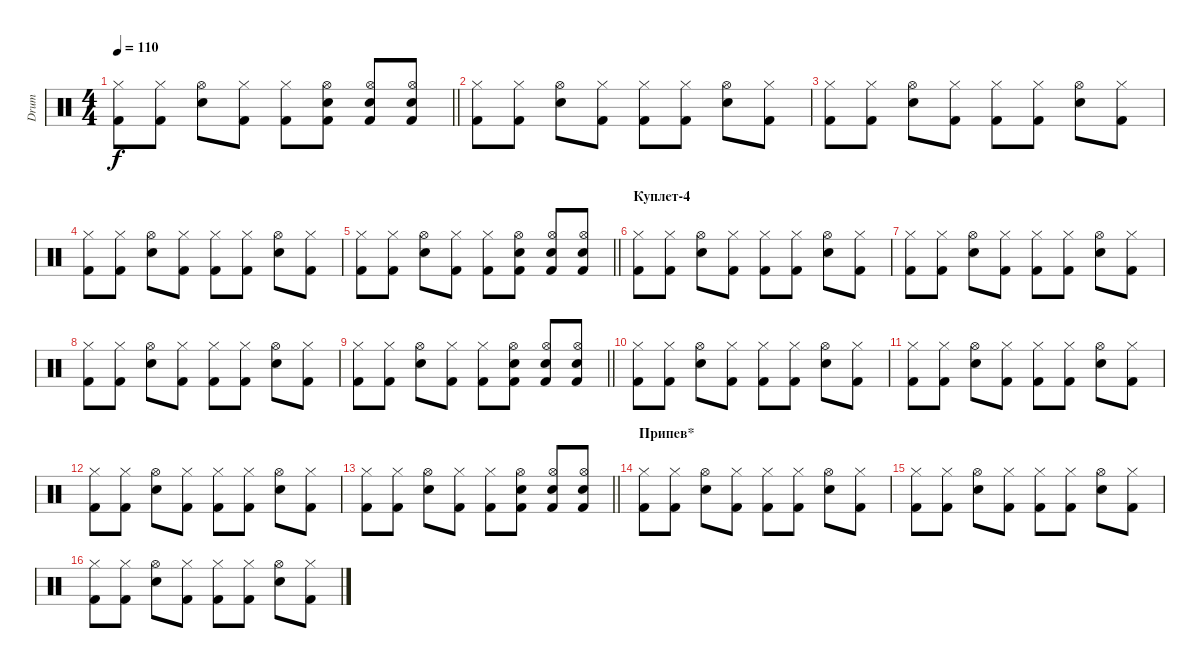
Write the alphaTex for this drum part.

\track ("Drum" "Drum") {instrument percussion}
\staff {score}
\articulation defaults
\ts (4 4)
\tempo 110
\clef neutral
\barLineRight lightlight
\ks c
("Hi-Hat (closed)" "Kick (hit) 2").8{dy f} ("Hi-Hat (closed)" "Kick (hit) 2").8 ("Hi-Hat (open)" "Snare (hit) 2").8 ("Hi-Hat (closed)" "Kick (hit) 2").8 ("Hi-Hat (closed)" "Kick (hit) 2").8 ("Hi-Hat (open)" "Snare (hit) 2" "Kick (hit) 2").8 ("Hi-Hat (open)" "Snare (hit) 2" "Kick (hit) 2").8 ("Hi-Hat (open)" "Snare (hit) 2" "Kick (hit) 2").8 |
("Hi-Hat (closed)" "Kick (hit) 2").8 ("Hi-Hat (closed)" "Kick (hit) 2").8 ("Hi-Hat (open)" "Snare (hit) 2").8 ("Hi-Hat (closed)" "Kick (hit) 2").8 ("Hi-Hat (closed)" "Kick (hit) 2").8 ("Hi-Hat (closed)" "Kick (hit) 2").8 ("Hi-Hat (open)" "Snare (hit) 2").8 ("Hi-Hat (closed)" "Kick (hit) 2").8 |
("Hi-Hat (closed)" "Kick (hit) 2").8 ("Hi-Hat (closed)" "Kick (hit) 2").8 ("Hi-Hat (open)" "Snare (hit) 2").8 ("Hi-Hat (closed)" "Kick (hit) 2").8 ("Hi-Hat (closed)" "Kick (hit) 2").8 ("Hi-Hat (closed)" "Kick (hit) 2").8 ("Hi-Hat (open)" "Snare (hit) 2").8 ("Hi-Hat (closed)" "Kick (hit) 2").8 |
("Hi-Hat (closed)" "Kick (hit) 2").8 ("Hi-Hat (closed)" "Kick (hit) 2").8 ("Hi-Hat (open)" "Snare (hit) 2").8 ("Hi-Hat (closed)" "Kick (hit) 2").8 ("Hi-Hat (closed)" "Kick (hit) 2").8 ("Hi-Hat (closed)" "Kick (hit) 2").8 ("Hi-Hat (open)" "Snare (hit) 2").8 ("Hi-Hat (closed)" "Kick (hit) 2").8 |
\barLineRight lightlight
("Hi-Hat (closed)" "Kick (hit) 2").8 ("Hi-Hat (closed)" "Kick (hit) 2").8 ("Hi-Hat (open)" "Snare (hit) 2").8 ("Hi-Hat (closed)" "Kick (hit) 2").8 ("Hi-Hat (closed)" "Kick (hit) 2").8 ("Hi-Hat (open)" "Snare (hit) 2" "Kick (hit) 2").8 ("Hi-Hat (open)" "Snare (hit) 2" "Kick (hit) 2").8 ("Hi-Hat (open)" "Snare (hit) 2" "Kick (hit) 2").8 |
\section ("" "Куплет-4")
("Hi-Hat (closed)" "Kick (hit) 2").8 ("Hi-Hat (closed)" "Kick (hit) 2").8 ("Hi-Hat (open)" "Snare (hit) 2").8 ("Hi-Hat (closed)" "Kick (hit) 2").8 ("Hi-Hat (closed)" "Kick (hit) 2").8 ("Hi-Hat (closed)" "Kick (hit) 2").8 ("Hi-Hat (open)" "Snare (hit) 2").8 ("Hi-Hat (closed)" "Kick (hit) 2").8 |
("Hi-Hat (closed)" "Kick (hit) 2").8 ("Hi-Hat (closed)" "Kick (hit) 2").8 ("Hi-Hat (open)" "Snare (hit) 2").8 ("Hi-Hat (closed)" "Kick (hit) 2").8 ("Hi-Hat (closed)" "Kick (hit) 2").8 ("Hi-Hat (closed)" "Kick (hit) 2").8 ("Hi-Hat (open)" "Snare (hit) 2").8 ("Hi-Hat (closed)" "Kick (hit) 2").8 |
("Hi-Hat (closed)" "Kick (hit) 2").8 ("Hi-Hat (closed)" "Kick (hit) 2").8 ("Hi-Hat (open)" "Snare (hit) 2").8 ("Hi-Hat (closed)" "Kick (hit) 2").8 ("Hi-Hat (closed)" "Kick (hit) 2").8 ("Hi-Hat (closed)" "Kick (hit) 2").8 ("Hi-Hat (open)" "Snare (hit) 2").8 ("Hi-Hat (closed)" "Kick (hit) 2").8 |
\barLineRight lightlight
("Hi-Hat (closed)" "Kick (hit) 2").8 ("Hi-Hat (closed)" "Kick (hit) 2").8 ("Hi-Hat (open)" "Snare (hit) 2").8 ("Hi-Hat (closed)" "Kick (hit) 2").8 ("Hi-Hat (closed)" "Kick (hit) 2").8 ("Hi-Hat (open)" "Snare (hit) 2" "Kick (hit) 2").8 ("Hi-Hat (open)" "Snare (hit) 2" "Kick (hit) 2").8 ("Hi-Hat (open)" "Snare (hit) 2" "Kick (hit) 2").8 |
("Hi-Hat (closed)" "Kick (hit) 2").8 ("Hi-Hat (closed)" "Kick (hit) 2").8 ("Hi-Hat (open)" "Snare (hit) 2").8 ("Hi-Hat (closed)" "Kick (hit) 2").8 ("Hi-Hat (closed)" "Kick (hit) 2").8 ("Hi-Hat (closed)" "Kick (hit) 2").8 ("Hi-Hat (open)" "Snare (hit) 2").8 ("Hi-Hat (closed)" "Kick (hit) 2").8 |
("Hi-Hat (closed)" "Kick (hit) 2").8 ("Hi-Hat (closed)" "Kick (hit) 2").8 ("Hi-Hat (open)" "Snare (hit) 2").8 ("Hi-Hat (closed)" "Kick (hit) 2").8 ("Hi-Hat (closed)" "Kick (hit) 2").8 ("Hi-Hat (closed)" "Kick (hit) 2").8 ("Hi-Hat (open)" "Snare (hit) 2").8 ("Hi-Hat (closed)" "Kick (hit) 2").8 |
("Hi-Hat (closed)" "Kick (hit) 2").8 ("Hi-Hat (closed)" "Kick (hit) 2").8 ("Hi-Hat (open)" "Snare (hit) 2").8 ("Hi-Hat (closed)" "Kick (hit) 2").8 ("Hi-Hat (closed)" "Kick (hit) 2").8 ("Hi-Hat (closed)" "Kick (hit) 2").8 ("Hi-Hat (open)" "Snare (hit) 2").8 ("Hi-Hat (closed)" "Kick (hit) 2").8 |
\barLineRight lightlight
("Hi-Hat (closed)" "Kick (hit) 2").8 ("Hi-Hat (closed)" "Kick (hit) 2").8 ("Hi-Hat (open)" "Snare (hit) 2").8 ("Hi-Hat (closed)" "Kick (hit) 2").8 ("Hi-Hat (closed)" "Kick (hit) 2").8 ("Hi-Hat (open)" "Snare (hit) 2" "Kick (hit) 2").8 ("Hi-Hat (open)" "Snare (hit) 2" "Kick (hit) 2").8 ("Hi-Hat (open)" "Snare (hit) 2" "Kick (hit) 2").8 |
\section ("" "Припев*")
("Hi-Hat (closed)" "Kick (hit) 2").8 ("Hi-Hat (closed)" "Kick (hit) 2").8 ("Hi-Hat (open)" "Snare (hit) 2").8 ("Hi-Hat (closed)" "Kick (hit) 2").8 ("Hi-Hat (closed)" "Kick (hit) 2").8 ("Hi-Hat (closed)" "Kick (hit) 2").8 ("Hi-Hat (open)" "Snare (hit) 2").8 ("Hi-Hat (closed)" "Kick (hit) 2").8 |
("Hi-Hat (closed)" "Kick (hit) 2").8 ("Hi-Hat (closed)" "Kick (hit) 2").8 ("Hi-Hat (open)" "Snare (hit) 2").8 ("Hi-Hat (closed)" "Kick (hit) 2").8 ("Hi-Hat (closed)" "Kick (hit) 2").8 ("Hi-Hat (closed)" "Kick (hit) 2").8 ("Hi-Hat (open)" "Snare (hit) 2").8 ("Hi-Hat (closed)" "Kick (hit) 2").8 |
("Hi-Hat (closed)" "Kick (hit) 2").8 ("Hi-Hat (closed)" "Kick (hit) 2").8 ("Hi-Hat (open)" "Snare (hit) 2").8 ("Hi-Hat (closed)" "Kick (hit) 2").8 ("Hi-Hat (closed)" "Kick (hit) 2").8 ("Hi-Hat (closed)" "Kick (hit) 2").8 ("Hi-Hat (open)" "Snare (hit) 2").8 ("Hi-Hat (closed)" "Kick (hit) 2").8
